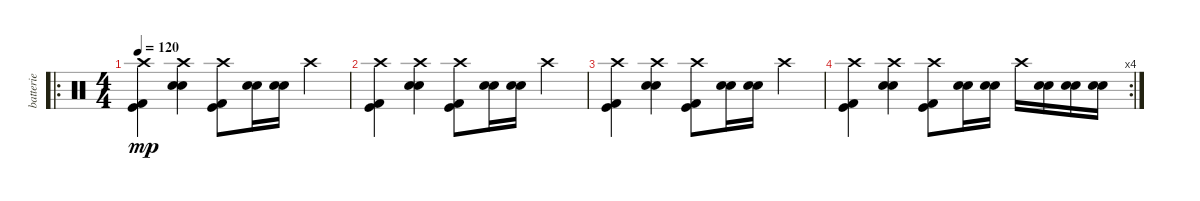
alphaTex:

\track ("batterie" "batterie") {instrument percussion}
\staff {score}
\articulation defaults
\ro
\ts (4 4)
\tempo 120
\clef neutral
\ks c
("Crash high (hit)" "Kick (hit)" "Kick (hit) 2").4{dy mp} ("Crash high (hit)" "Electric Snare (hit)" "Snare (hit) 2").4 ("Crash high (hit)" "Kick (hit)" "Kick (hit) 2").8 ("Electric Snare (hit)" "Snare (hit) 2").16 ("Electric Snare (hit)" "Snare (hit) 2").16 "Crash high (hit)".4 |
("Crash high (hit)" "Kick (hit)" "Kick (hit) 2").4 ("Crash high (hit)" "Electric Snare (hit)" "Snare (hit) 2").4 ("Crash high (hit)" "Kick (hit)" "Kick (hit) 2").8 ("Electric Snare (hit)" "Snare (hit) 2").16 ("Electric Snare (hit)" "Snare (hit) 2").16 "Crash high (hit)".4 |
("Crash high (hit)" "Kick (hit)" "Kick (hit) 2").4 ("Crash high (hit)" "Electric Snare (hit)" "Snare (hit) 2").4 ("Crash high (hit)" "Kick (hit)" "Kick (hit) 2").8 ("Electric Snare (hit)" "Snare (hit) 2").16 ("Electric Snare (hit)" "Snare (hit) 2").16 "Crash high (hit)".4 |
\rc 4
("Crash high (hit)" "Kick (hit)" "Kick (hit) 2").4 ("Crash high (hit)" "Electric Snare (hit)" "Snare (hit) 2").4 ("Crash high (hit)" "Kick (hit)" "Kick (hit) 2").8 ("Electric Snare (hit)" "Snare (hit) 2").16 ("Electric Snare (hit)" "Snare (hit) 2").16 "Crash high (hit)".16 ("Electric Snare (hit)" "Snare (hit) 2").16 ("Electric Snare (hit)" "Snare (hit) 2").16 ("Electric Snare (hit)" "Snare (hit) 2").16
